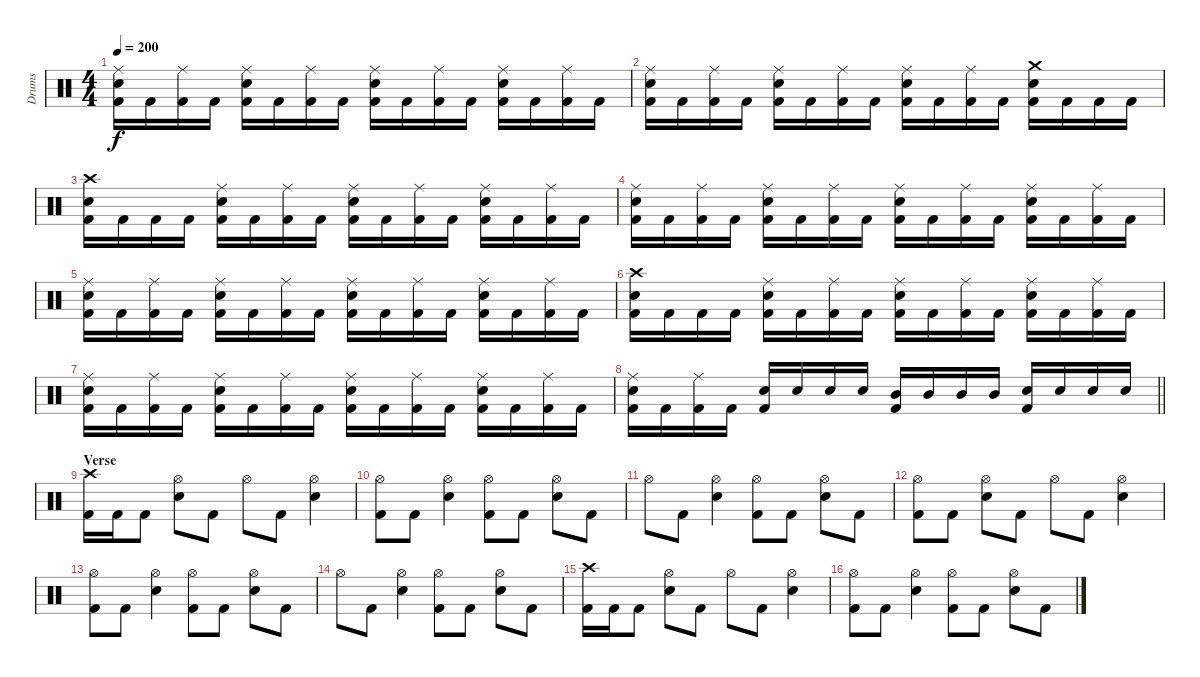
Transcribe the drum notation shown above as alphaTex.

\track ("Drums" "Drums") {instrument percussion}
\staff {score}
\articulation defaults
\ts (4 4)
\tempo 200
\clef neutral
\ks c
("Ride (middle)" "Snare (hit) 2" "Kick (hit) 2").16{dy f} "Kick (hit) 2".16 ("Ride (middle)" "Kick (hit) 2").16 "Kick (hit) 2".16 ("Ride (middle)" "Snare (hit) 2" "Kick (hit) 2").16 "Kick (hit) 2".16 ("Ride (middle)" "Kick (hit) 2").16 "Kick (hit) 2".16 ("Ride (middle)" "Snare (hit) 2" "Kick (hit) 2").16 "Kick (hit) 2".16 ("Ride (middle)" "Kick (hit) 2").16 "Kick (hit) 2".16 ("Ride (middle)" "Snare (hit) 2" "Kick (hit) 2").16 "Kick (hit) 2".16 ("Ride (middle)" "Kick (hit) 2").16 "Kick (hit) 2".16 |
("Ride (middle)" "Snare (hit) 2" "Kick (hit) 2").16 "Kick (hit) 2".16 ("Ride (middle)" "Kick (hit) 2").16 "Kick (hit) 2".16 ("Ride (middle)" "Snare (hit) 2" "Kick (hit) 2").16 "Kick (hit) 2".16 ("Ride (middle)" "Kick (hit) 2").16 "Kick (hit) 2".16 ("Ride (middle)" "Snare (hit) 2" "Kick (hit) 2").16 "Kick (hit) 2".16 ("Ride (middle)" "Kick (hit) 2").16 "Kick (hit) 2".16 ("Crash medium (hit)" "Snare (hit) 2" "Kick (hit) 2").16 "Kick (hit) 2".16 "Kick (hit) 2".16 "Kick (hit) 2".16 |
("Crash high (hit)" "Snare (hit) 2" "Kick (hit) 2").16 "Kick (hit) 2".16 "Kick (hit) 2".16 "Kick (hit) 2".16 ("Ride (middle)" "Snare (hit) 2" "Kick (hit) 2").16 "Kick (hit) 2".16 ("Ride (middle)" "Kick (hit) 2").16 "Kick (hit) 2".16 ("Ride (middle)" "Snare (hit) 2" "Kick (hit) 2").16 "Kick (hit) 2".16 ("Ride (middle)" "Kick (hit) 2").16 "Kick (hit) 2".16 ("Ride (middle)" "Snare (hit) 2" "Kick (hit) 2").16 "Kick (hit) 2".16 ("Ride (middle)" "Kick (hit) 2").16 "Kick (hit) 2".16 |
("Ride (middle)" "Snare (hit) 2" "Kick (hit) 2").16 "Kick (hit) 2".16 ("Ride (middle)" "Kick (hit) 2").16 "Kick (hit) 2".16 ("Ride (middle)" "Snare (hit) 2" "Kick (hit) 2").16 "Kick (hit) 2".16 ("Ride (middle)" "Kick (hit) 2").16 "Kick (hit) 2".16 ("Ride (middle)" "Snare (hit) 2" "Kick (hit) 2").16 "Kick (hit) 2".16 ("Ride (middle)" "Kick (hit) 2").16 "Kick (hit) 2".16 ("Ride (middle)" "Snare (hit) 2" "Kick (hit) 2").16 "Kick (hit) 2".16 ("Ride (middle)" "Kick (hit) 2").16 "Kick (hit) 2".16 |
("Ride (middle)" "Snare (hit) 2" "Kick (hit) 2").16 "Kick (hit) 2".16 ("Ride (middle)" "Kick (hit) 2").16 "Kick (hit) 2".16 ("Ride (middle)" "Snare (hit) 2" "Kick (hit) 2").16 "Kick (hit) 2".16 ("Ride (middle)" "Kick (hit) 2").16 "Kick (hit) 2".16 ("Ride (middle)" "Snare (hit) 2" "Kick (hit) 2").16 "Kick (hit) 2".16 ("Ride (middle)" "Kick (hit) 2").16 "Kick (hit) 2".16 ("Ride (middle)" "Snare (hit) 2" "Kick (hit) 2").16 "Kick (hit) 2".16 ("Ride (middle)" "Kick (hit) 2").16 "Kick (hit) 2".16 |
("Crash high (hit)" "Snare (hit) 2" "Kick (hit) 2").16 "Kick (hit) 2".16 "Kick (hit) 2".16 "Kick (hit) 2".16 ("Ride (middle)" "Snare (hit) 2" "Kick (hit) 2").16 "Kick (hit) 2".16 ("Ride (middle)" "Kick (hit) 2").16 "Kick (hit) 2".16 ("Ride (middle)" "Snare (hit) 2" "Kick (hit) 2").16 "Kick (hit) 2".16 ("Ride (middle)" "Kick (hit) 2").16 "Kick (hit) 2".16 ("Ride (middle)" "Snare (hit) 2" "Kick (hit) 2").16 "Kick (hit) 2".16 ("Ride (middle)" "Kick (hit) 2").16 "Kick (hit) 2".16 |
("Ride (middle)" "Snare (hit) 2" "Kick (hit) 2").16 "Kick (hit) 2".16 ("Ride (middle)" "Kick (hit) 2").16 "Kick (hit) 2".16 ("Ride (middle)" "Snare (hit) 2" "Kick (hit) 2").16 "Kick (hit) 2".16 ("Ride (middle)" "Kick (hit) 2").16 "Kick (hit) 2".16 ("Ride (middle)" "Snare (hit) 2" "Kick (hit) 2").16 "Kick (hit) 2".16 ("Ride (middle)" "Kick (hit) 2").16 "Kick (hit) 2".16 ("Ride (middle)" "Snare (hit) 2" "Kick (hit) 2").16 "Kick (hit) 2".16 ("Ride (middle)" "Kick (hit) 2").16 "Kick (hit) 2".16 |
\barLineRight lightlight
("Ride (middle)" "Snare (hit) 2" "Kick (hit) 2").16 "Kick (hit) 2".16 ("Ride (middle)" "Kick (hit) 2").16 "Kick (hit) 2".16 ("Snare (hit) 2" "Kick (hit) 2").16 "Snare (hit) 2".16 "Snare (hit) 2".16 "Snare (hit) 2".16 ("Mid Tom (hit)" "Kick (hit) 2").16 "Mid Tom (hit)".16 "Mid Tom (hit)".16 "Mid Tom (hit)".16 ("Snare (hit) 2" "Kick (hit) 2").16 "Snare (hit) 2".16 "Snare (hit) 2".16 "Snare (hit) 2".16 |
\section ("" "Verse")
("Crash high (hit)" "Kick (hit) 2").16 "Kick (hit) 2".16 "Kick (hit) 2".8 ("Hi-Hat (open)" "Snare (hit) 2").8 "Kick (hit) 2".8 "Hi-Hat (open)".8 "Kick (hit) 2".8 ("Hi-Hat (open)" "Snare (hit) 2").4 |
("Hi-Hat (open)" "Kick (hit) 2").8 "Kick (hit) 2".8 ("Hi-Hat (open)" "Snare (hit) 2").4 ("Hi-Hat (open)" "Kick (hit) 2").8 "Kick (hit) 2".8 ("Hi-Hat (open)" "Snare (hit) 2").8 "Kick (hit) 2".8 |
"Hi-Hat (open)".8 "Kick (hit) 2".8 ("Hi-Hat (open)" "Snare (hit) 2").4 ("Hi-Hat (open)" "Kick (hit) 2").8 "Kick (hit) 2".8 ("Hi-Hat (open)" "Snare (hit) 2").8 "Kick (hit) 2".8 |
("Hi-Hat (open)" "Kick (hit) 2").8 "Kick (hit) 2".8 ("Hi-Hat (open)" "Snare (hit) 2").8 "Kick (hit) 2".8 "Hi-Hat (open)".8 "Kick (hit) 2".8 ("Hi-Hat (open)" "Snare (hit) 2").4 |
("Hi-Hat (open)" "Kick (hit) 2").8 "Kick (hit) 2".8 ("Hi-Hat (open)" "Snare (hit) 2").4 ("Hi-Hat (open)" "Kick (hit) 2").8 "Kick (hit) 2".8 ("Hi-Hat (open)" "Snare (hit) 2").8 "Kick (hit) 2".8 |
"Hi-Hat (open)".8 "Kick (hit) 2".8 ("Hi-Hat (open)" "Snare (hit) 2").4 ("Hi-Hat (open)" "Kick (hit) 2").8 "Kick (hit) 2".8 ("Hi-Hat (open)" "Snare (hit) 2").8 "Kick (hit) 2".8 |
("Crash high (hit)" "Kick (hit) 2").16 "Kick (hit) 2".16 "Kick (hit) 2".8 ("Hi-Hat (open)" "Snare (hit) 2").8 "Kick (hit) 2".8 "Hi-Hat (open)".8 "Kick (hit) 2".8 ("Hi-Hat (open)" "Snare (hit) 2").4 |
("Hi-Hat (open)" "Kick (hit) 2").8 "Kick (hit) 2".8 ("Hi-Hat (open)" "Snare (hit) 2").4 ("Hi-Hat (open)" "Kick (hit) 2").8 "Kick (hit) 2".8 ("Hi-Hat (open)" "Snare (hit) 2").8 "Kick (hit) 2".8
